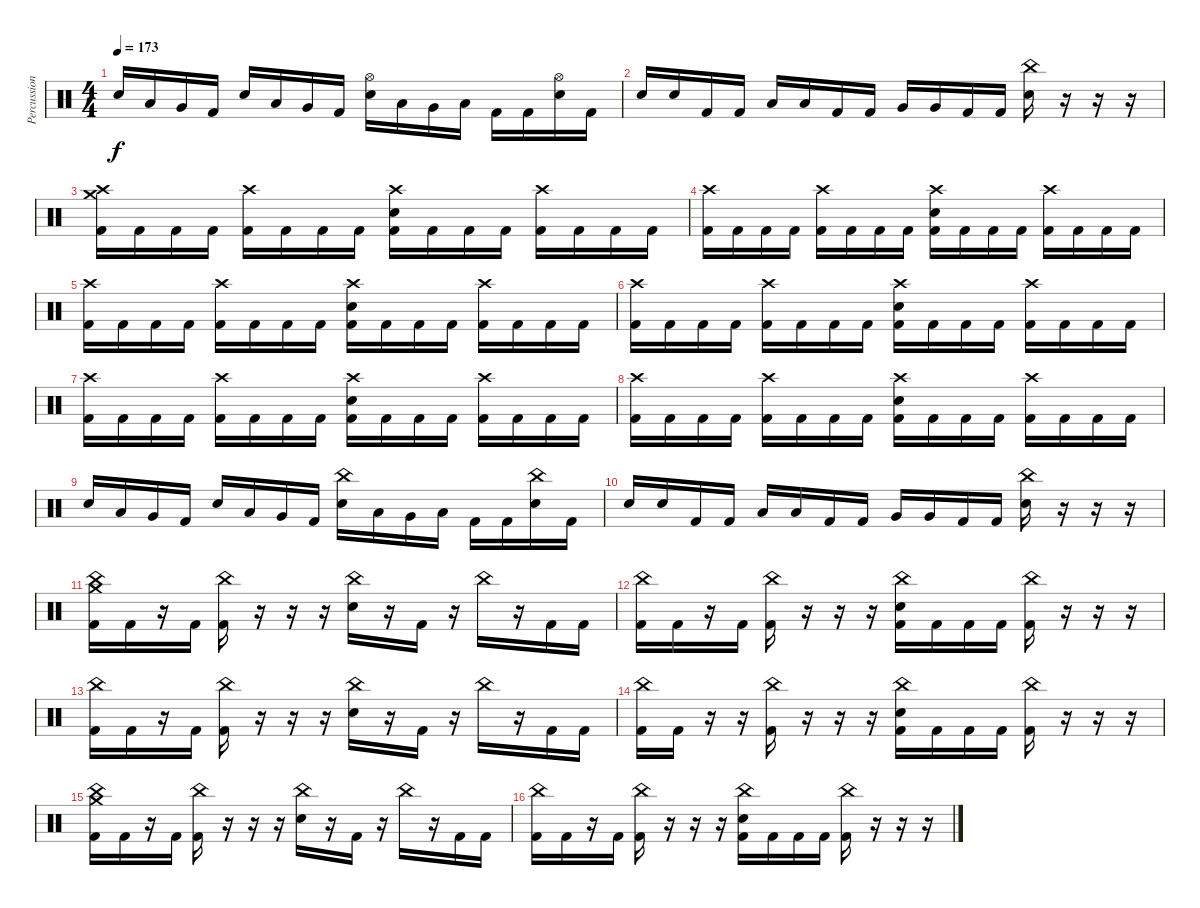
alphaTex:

\track ("Percussion" "Percussion") {instrument percussion}
\staff {score}
\articulation defaults
\ts (4 4)
\tempo 173
\clef neutral
\ks c "Electric Snare (hit)".16{dy f} "Low Tom (hit)".16 "Very Low Tom (hit)".16 "Kick (hit) 2".16 "Electric Snare (hit)".16 "Low Tom (hit)".16 "Very Low Tom (hit)".16 "Kick (hit) 2".16
("Electric Snare (hit)" "Hi-Hat (open)").16 "Low Tom (hit)".16 "Very Low Tom (hit)".16 "Low Floor Tom (hit)".16 "Kick (hit) 2".16 "Kick (hit) 2".16 ("Electric Snare (hit)" "Hi-Hat (open)").16 "Kick (hit) 2".16 |
"Electric Snare (hit)".16 "Electric Snare (hit)".16 "Kick (hit) 2".16 "Kick (hit) 2".16 "Low Tom (hit)".16 "Low Tom (hit)".16 "Kick (hit) 2".16 "Kick (hit) 2".16 "Very Low Tom (hit)".16 "Very Low Tom (hit)".16 "Kick (hit) 2".16 "Kick (hit) 2".16 ("Electric Snare (hit)" "China (hit)").16 r.16 r.16 r.16 |
("Kick (hit) 2" "Crash medium (hit)" "Crash high (hit)").16 "Kick (hit) 2".16 "Kick (hit) 2".16 "Kick (hit) 2".16 ("Kick (hit) 2" "Crash high (hit)").16 "Kick (hit) 2".16 "Kick (hit) 2".16 "Kick (hit) 2".16 ("Kick (hit) 2" "Electric Snare (hit)" "Crash high (hit)").16 "Kick (hit) 2".16 "Kick (hit) 2".16 "Kick (hit) 2".16 ("Kick (hit) 2" "Crash high (hit)").16 "Kick (hit) 2".16 "Kick (hit) 2".16 "Kick (hit) 2".16 |
("Kick (hit) 2" "Crash high (hit)").16 "Kick (hit) 2".16 "Kick (hit) 2".16 "Kick (hit) 2".16 ("Kick (hit) 2" "Crash high (hit)").16 "Kick (hit) 2".16 "Kick (hit) 2".16 "Kick (hit) 2".16 ("Kick (hit) 2" "Electric Snare (hit)" "Crash high (hit)").16 "Kick (hit) 2".16 "Kick (hit) 2".16 "Kick (hit) 2".16 ("Kick (hit) 2" "Crash high (hit)").16 "Kick (hit) 2".16 "Kick (hit) 2".16 "Kick (hit) 2".16 |
("Kick (hit) 2" "Crash high (hit)").16 "Kick (hit) 2".16 "Kick (hit) 2".16 "Kick (hit) 2".16 ("Kick (hit) 2" "Crash high (hit)").16 "Kick (hit) 2".16 "Kick (hit) 2".16 "Kick (hit) 2".16 ("Kick (hit) 2" "Electric Snare (hit)" "Crash high (hit)").16 "Kick (hit) 2".16 "Kick (hit) 2".16 "Kick (hit) 2".16 ("Kick (hit) 2" "Crash high (hit)").16 "Kick (hit) 2".16 "Kick (hit) 2".16 "Kick (hit) 2".16 |
("Kick (hit) 2" "Crash high (hit)").16 "Kick (hit) 2".16 "Kick (hit) 2".16 "Kick (hit) 2".16 ("Kick (hit) 2" "Crash high (hit)").16 "Kick (hit) 2".16 "Kick (hit) 2".16 "Kick (hit) 2".16 ("Kick (hit) 2" "Electric Snare (hit)" "Crash high (hit)").16 "Kick (hit) 2".16 "Kick (hit) 2".16 "Kick (hit) 2".16 ("Kick (hit) 2" "Crash high (hit)").16 "Kick (hit) 2".16 "Kick (hit) 2".16 "Kick (hit) 2".16 |
("Kick (hit) 2" "Crash high (hit)").16 "Kick (hit) 2".16 "Kick (hit) 2".16 "Kick (hit) 2".16 ("Kick (hit) 2" "Crash high (hit)").16 "Kick (hit) 2".16 "Kick (hit) 2".16 "Kick (hit) 2".16 ("Kick (hit) 2" "Electric Snare (hit)" "Crash high (hit)").16 "Kick (hit) 2".16 "Kick (hit) 2".16 "Kick (hit) 2".16 ("Kick (hit) 2" "Crash high (hit)").16 "Kick (hit) 2".16 "Kick (hit) 2".16 "Kick (hit) 2".16 |
("Kick (hit) 2" "Crash high (hit)").16 "Kick (hit) 2".16 "Kick (hit) 2".16 "Kick (hit) 2".16 ("Kick (hit) 2" "Crash high (hit)").16 "Kick (hit) 2".16 "Kick (hit) 2".16 "Kick (hit) 2".16 ("Kick (hit) 2" "Electric Snare (hit)" "Crash high (hit)").16 "Kick (hit) 2".16 "Kick (hit) 2".16 "Kick (hit) 2".16 ("Kick (hit) 2" "Crash high (hit)").16 "Kick (hit) 2".16 "Kick (hit) 2".16 "Kick (hit) 2".16 |
"Electric Snare (hit)".16 "Low Tom (hit)".16 "Very Low Tom (hit)".16 "Kick (hit) 2".16 "Electric Snare (hit)".16 "Low Tom (hit)".16 "Very Low Tom (hit)".16 "Kick (hit) 2".16 ("Electric Snare (hit)" "China (hit)").16 "Low Tom (hit)".16 "Very Low Tom (hit)".16 "Low Floor Tom (hit)".16 "Kick (hit) 2".16 "Kick (hit) 2".16 ("Electric Snare (hit)" "China (hit)").16 "Kick (hit) 2".16 |
"Electric Snare (hit)".16 "Electric Snare (hit)".16 "Kick (hit) 2".16 "Kick (hit) 2".16 "Low Tom (hit)".16 "Low Tom (hit)".16 "Kick (hit) 2".16 "Kick (hit) 2".16 "Very Low Tom (hit)".16 "Very Low Tom (hit)".16 "Kick (hit) 2".16 "Kick (hit) 2".16 ("Electric Snare (hit)" "China (hit)").16 r.16 r.16 r.16 |
("Kick (hit) 2" "Crash medium (hit)" "China (hit)").16 "Kick (hit) 2".16 r.16 "Kick (hit) 2".16 ("Kick (hit) 2" "China (hit)").16 r.16 r.16 r.16 ("Electric Snare (hit)" "China (hit)").16 r.16 "Kick (hit) 2".16 r.16 "China (hit)".16 r.16 "Kick (hit) 2".16 "Kick (hit) 2".16 |
("Kick (hit) 2" "China (hit)").16 "Kick (hit) 2".16 r.16 "Kick (hit) 2".16 ("Kick (hit) 2" "China (hit)").16 r.16 r.16 r.16 ("Kick (hit) 2" "Electric Snare (hit)" "China (hit)").16 "Kick (hit) 2".16 "Kick (hit) 2".16 "Kick (hit) 2".16 ("Kick (hit) 2" "China (hit)").16 r.16 r.16 r.16 |
("Kick (hit) 2" "China (hit)").16 "Kick (hit) 2".16 r.16 "Kick (hit) 2".16 ("Kick (hit) 2" "China (hit)").16 r.16 r.16 r.16 ("Electric Snare (hit)" "China (hit)").16 r.16 "Kick (hit) 2".16 r.16 "China (hit)".16 r.16 "Kick (hit) 2".16 "Kick (hit) 2".16 |
("Kick (hit) 2" "China (hit)").16 "Kick (hit) 2".16 r.16 r.16 ("Kick (hit) 2" "China (hit)").16 r.16 r.16 r.16 ("Kick (hit) 2" "Electric Snare (hit)" "China (hit)").16 "Kick (hit) 2".16 "Kick (hit) 2".16 "Kick (hit) 2".16 ("Kick (hit) 2" "China (hit)").16 r.16 r.16 r.16 |
("Kick (hit) 2" "Crash medium (hit)" "China (hit)").16 "Kick (hit) 2".16 r.16 "Kick (hit) 2".16 ("Kick (hit) 2" "China (hit)").16 r.16 r.16 r.16 ("Electric Snare (hit)" "China (hit)").16 r.16 "Kick (hit) 2".16 r.16 "China (hit)".16 r.16 "Kick (hit) 2".16 "Kick (hit) 2".16 |
("Kick (hit) 2" "China (hit)").16 "Kick (hit) 2".16 r.16 "Kick (hit) 2".16 ("Kick (hit) 2" "China (hit)").16 r.16 r.16 r.16 ("Kick (hit) 2" "Electric Snare (hit)" "China (hit)").16 "Kick (hit) 2".16 "Kick (hit) 2".16 "Kick (hit) 2".16 ("Kick (hit) 2" "China (hit)").16 r.16 r.16 r.16
